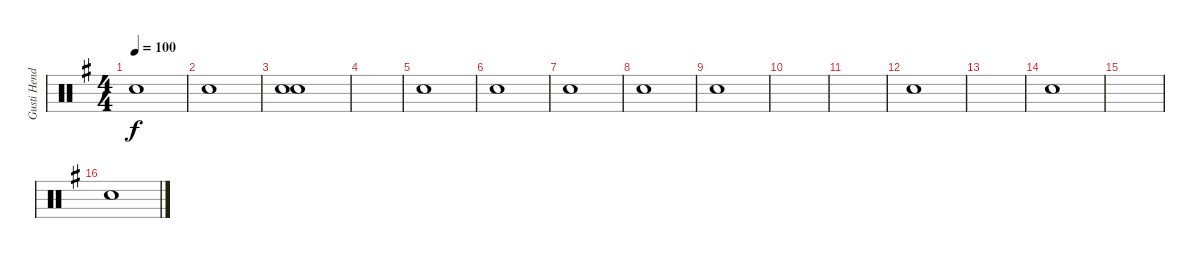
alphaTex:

\track ("Gusti Hendy" "Gusti Hend") {instrument percussion}
\staff {score}
\articulation defaults
\ts (4 4)
\tempo 100
\clef neutral
\ks g "Snare (hit)".1{dy f}
|
"Snare (hit)".1 |
("Snare (hit)" "Snare (hit)").1 |
|
"Snare (hit)".1 |
"Snare (hit)".1 |
"Snare (hit)".1 |
"Snare (hit)".1 |
"Snare (hit)".1 |
|
|
"Snare (hit)".1 |
|
"Snare (hit)".1 |
|
"Snare (hit)".1
